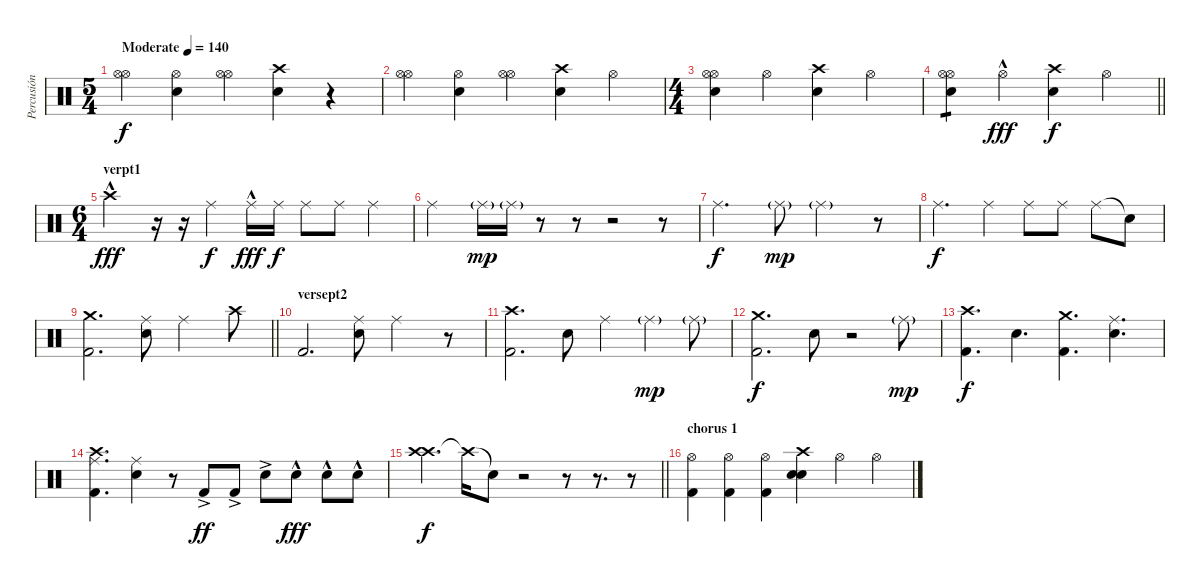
\track ("Percusión" "Percusión") {instrument percussion}
\staff {score}
\articulation defaults
\ts (5 4)
\tempo (140 "Moderate")
\clef neutral
\ks c
("Hi-Hat (open)" "Hi-Hat (open)").4{dy f} ("Hi-Hat (open)" "Electric Snare (hit)").4 ("Hi-Hat (open)" "Hi-Hat (open)").4 ("Crash high (hit)" "Electric Snare (hit)").4 r.4 |
("Hi-Hat (open)" "Hi-Hat (open)").4 ("Hi-Hat (open)" "Electric Snare (hit)").4 ("Hi-Hat (open)" "Hi-Hat (open)").4 ("Crash high (hit)" "Electric Snare (hit)").4 "Hi-Hat (open)".4 |
\ts (4 4)
("Hi-Hat (open)" "Hi-Hat (open)" "Electric Snare (hit)").4 "Hi-Hat (open)".4 ("Crash high (hit)" "Electric Snare (hit)").4 "Hi-Hat (open)".4 |
\barLineRight lightlight
("Hi-Hat (open)" "Hi-Hat (open)" "Electric Snare (hit)").4{tp 1} "Hi-Hat (open)"{hac}.4{dy fff} ("Crash high (hit)" "Electric Snare (hit)").4{dy f} "Hi-Hat (open)".4 |
\ts (6 4)
\section ("" "verpt1")
"Crash high (hit)"{hac}.2{dy fff} r.16 r.16 "Ride (middle)".4{dy f} "Ride (middle)"{hac}.16{dy fff} "Ride (middle)".16{dy f} "Ride (middle)".8 "Ride (middle)".8 "Ride (middle)".4 |
"Ride (middle)".2 "Ride (middle)"{g}.16{dy mp} "Ride (middle)"{g}.16 r.8 r.8 r.2 r.8 |
"Ride (middle)".2{d dy f} "Ride (middle)"{g}.8{dy mp} "Ride (middle)"{g}.2 r.8 |
"Ride (middle)".2{d dy f} "Ride (middle)".4 "Ride (middle)".8 "Ride (middle)".8 "Ride (middle)".8 "Snare (hit)"{t}.8 |
\barLineRight lightlight
("Crash medium (hit)" "Kick (hit) 2").2{d} ("Ride (middle)" "Electric Snare (hit)").8 "Ride (middle)".2 "Crash high (hit)".8 |
\section ("" "versept2")
"Kick (hit) 2".2{d} ("Ride (middle)" "Electric Snare (hit)").8 "Ride (middle)".2 r.8 |
("Crash high (hit)" "Kick (hit) 2").2{d} "Electric Snare (hit)".8 "Ride (middle)".4 "Ride (middle)"{g}.4{dy mp} "Ride (middle)"{g}.8 |
("Crash medium (hit)" "Kick (hit) 2").2{d dy f} "Electric Snare (hit)".8 r.2 "Ride (middle)"{g}.8{dy mp} |
("Crash high (hit)" "Kick (hit) 2").4{d dy f} "Electric Snare (hit)".4{d} ("Crash medium (hit)" "Kick (hit) 2").4{d} ("Ride (middle)" "Electric Snare (hit)").4{d} |
("Crash high (hit)" "Ride (middle)" "Kick (hit) 2").4{d} ("Ride (middle)" "Electric Snare (hit)").4 r.8 "Kick (hit) 2"{ac}.8{dy ff volume 16} "Kick (hit) 2"{ac}.8 "Snare (hit) 2"{ac}.8 "Snare (hit) 2"{hac}.8{dy fff} "Snare (hit) 2"{hac}.8 "Snare (hit) 2"{hac}.8 |
\barLineRight lightlight
("Crash high (hit)" "Crash high (hit)").4{d dy f} "Crash high (hit)"{t}.16 "Snare (hit)"{t}.8 r.2 r.8 r.8{d} r.8 |
\section ("" "chorus 1")
("Hi-Hat (open)" "Kick (hit) 2").4 ("Hi-Hat (open)" "Kick (hit) 2").4 ("Hi-Hat (open)" "Kick (hit) 2").4 ("Crash high (hit)" "Electric Snare (hit)" "Electric Snare (hit)").4 "Hi-Hat (open)".4 "Hi-Hat (open)".4
